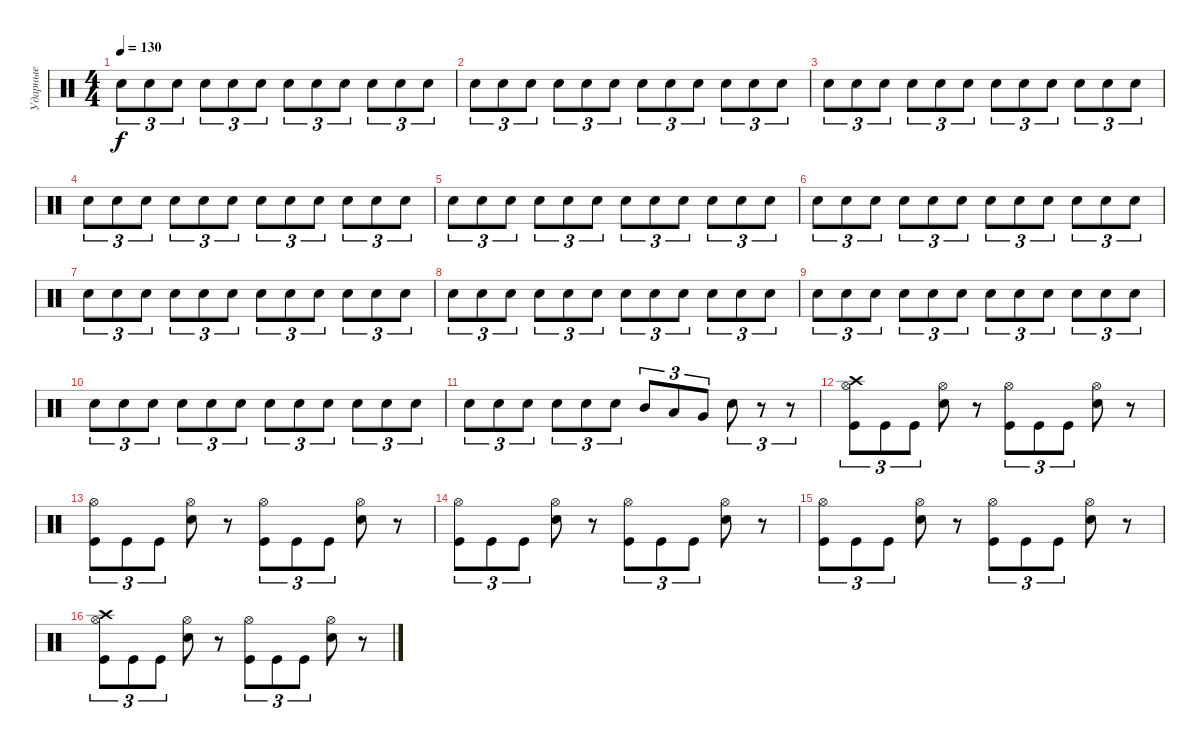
\track ("Ударные" "Ударные") {instrument percussion}
\staff {score}
\articulation defaults
\ts (4 4)
\tempo 130
\clef neutral
\ks c "Electric Snare (hit)".8{tu (3 2) dy f volume 8} "Electric Snare (hit)".8{tu (3 2)} "Electric Snare (hit)".8{tu (3 2)} "Electric Snare (hit)".8{tu (3 2)} "Electric Snare (hit)".8{tu (3 2)} "Electric Snare (hit)".8{tu (3 2)} "Electric Snare (hit)".8{tu (3 2)} "Electric Snare (hit)".8{tu (3 2)} "Electric Snare (hit)".8{tu (3 2)} "Electric Snare (hit)".8{tu (3 2)} "Electric Snare (hit)".8{tu (3 2)} "Electric Snare (hit)".8{tu (3 2)}
|
"Electric Snare (hit)".8{tu (3 2) volume 8} "Electric Snare (hit)".8{tu (3 2)} "Electric Snare (hit)".8{tu (3 2)} "Electric Snare (hit)".8{tu (3 2)} "Electric Snare (hit)".8{tu (3 2)} "Electric Snare (hit)".8{tu (3 2)} "Electric Snare (hit)".8{tu (3 2)} "Electric Snare (hit)".8{tu (3 2)} "Electric Snare (hit)".8{tu (3 2)} "Electric Snare (hit)".8{tu (3 2)} "Electric Snare (hit)".8{tu (3 2)} "Electric Snare (hit)".8{tu (3 2)} |
"Electric Snare (hit)".8{tu (3 2) volume 9} "Electric Snare (hit)".8{tu (3 2)} "Electric Snare (hit)".8{tu (3 2)} "Electric Snare (hit)".8{tu (3 2)} "Electric Snare (hit)".8{tu (3 2)} "Electric Snare (hit)".8{tu (3 2)} "Electric Snare (hit)".8{tu (3 2)} "Electric Snare (hit)".8{tu (3 2)} "Electric Snare (hit)".8{tu (3 2)} "Electric Snare (hit)".8{tu (3 2)} "Electric Snare (hit)".8{tu (3 2)} "Electric Snare (hit)".8{tu (3 2)} |
"Electric Snare (hit)".8{tu (3 2) volume 10} "Electric Snare (hit)".8{tu (3 2)} "Electric Snare (hit)".8{tu (3 2)} "Electric Snare (hit)".8{tu (3 2)} "Electric Snare (hit)".8{tu (3 2)} "Electric Snare (hit)".8{tu (3 2)} "Electric Snare (hit)".8{tu (3 2)} "Electric Snare (hit)".8{tu (3 2)} "Electric Snare (hit)".8{tu (3 2)} "Electric Snare (hit)".8{tu (3 2)} "Electric Snare (hit)".8{tu (3 2)} "Electric Snare (hit)".8{tu (3 2)} |
"Electric Snare (hit)".8{tu (3 2) volume 10} "Electric Snare (hit)".8{tu (3 2)} "Electric Snare (hit)".8{tu (3 2)} "Electric Snare (hit)".8{tu (3 2)} "Electric Snare (hit)".8{tu (3 2)} "Electric Snare (hit)".8{tu (3 2)} "Electric Snare (hit)".8{tu (3 2)} "Electric Snare (hit)".8{tu (3 2)} "Electric Snare (hit)".8{tu (3 2)} "Electric Snare (hit)".8{tu (3 2)} "Electric Snare (hit)".8{tu (3 2)} "Electric Snare (hit)".8{tu (3 2)} |
"Electric Snare (hit)".8{tu (3 2) volume 10} "Electric Snare (hit)".8{tu (3 2)} "Electric Snare (hit)".8{tu (3 2)} "Electric Snare (hit)".8{tu (3 2)} "Electric Snare (hit)".8{tu (3 2)} "Electric Snare (hit)".8{tu (3 2)} "Electric Snare (hit)".8{tu (3 2)} "Electric Snare (hit)".8{tu (3 2)} "Electric Snare (hit)".8{tu (3 2)} "Electric Snare (hit)".8{tu (3 2)} "Electric Snare (hit)".8{tu (3 2)} "Electric Snare (hit)".8{tu (3 2)} |
"Electric Snare (hit)".8{tu (3 2) volume 11} "Electric Snare (hit)".8{tu (3 2)} "Electric Snare (hit)".8{tu (3 2)} "Electric Snare (hit)".8{tu (3 2)} "Electric Snare (hit)".8{tu (3 2)} "Electric Snare (hit)".8{tu (3 2)} "Electric Snare (hit)".8{tu (3 2)} "Electric Snare (hit)".8{tu (3 2)} "Electric Snare (hit)".8{tu (3 2)} "Electric Snare (hit)".8{tu (3 2)} "Electric Snare (hit)".8{tu (3 2)} "Electric Snare (hit)".8{tu (3 2)} |
"Electric Snare (hit)".8{tu (3 2) volume 11} "Electric Snare (hit)".8{tu (3 2)} "Electric Snare (hit)".8{tu (3 2)} "Electric Snare (hit)".8{tu (3 2)} "Electric Snare (hit)".8{tu (3 2)} "Electric Snare (hit)".8{tu (3 2)} "Electric Snare (hit)".8{tu (3 2)} "Electric Snare (hit)".8{tu (3 2)} "Electric Snare (hit)".8{tu (3 2)} "Electric Snare (hit)".8{tu (3 2)} "Electric Snare (hit)".8{tu (3 2)} "Electric Snare (hit)".8{tu (3 2)} |
"Electric Snare (hit)".8{tu (3 2) volume 12} "Electric Snare (hit)".8{tu (3 2)} "Electric Snare (hit)".8{tu (3 2)} "Electric Snare (hit)".8{tu (3 2)} "Electric Snare (hit)".8{tu (3 2)} "Electric Snare (hit)".8{tu (3 2)} "Electric Snare (hit)".8{tu (3 2)} "Electric Snare (hit)".8{tu (3 2)} "Electric Snare (hit)".8{tu (3 2)} "Electric Snare (hit)".8{tu (3 2)} "Electric Snare (hit)".8{tu (3 2)} "Electric Snare (hit)".8{tu (3 2)} |
"Electric Snare (hit)".8{tu (3 2) volume 13} "Electric Snare (hit)".8{tu (3 2)} "Electric Snare (hit)".8{tu (3 2)} "Electric Snare (hit)".8{tu (3 2)} "Electric Snare (hit)".8{tu (3 2)} "Electric Snare (hit)".8{tu (3 2)} "Electric Snare (hit)".8{tu (3 2)} "Electric Snare (hit)".8{tu (3 2)} "Electric Snare (hit)".8{tu (3 2)} "Electric Snare (hit)".8{tu (3 2)} "Electric Snare (hit)".8{tu (3 2)} "Electric Snare (hit)".8{tu (3 2)} |
"Electric Snare (hit)".8{tu (3 2) volume 16} "Electric Snare (hit)".8{tu (3 2)} "Electric Snare (hit)".8{tu (3 2)} "Electric Snare (hit)".8{tu (3 2)} "Electric Snare (hit)".8{tu (3 2)} "Electric Snare (hit)".8{tu (3 2)} "Mid Tom (hit)".8{tu (3 2)} "Low Tom (hit)".8{tu (3 2)} "Very Low Tom (hit)".8{tu (3 2)} "Electric Snare (hit)".8{tu (3 2)} r.8{tu (3 2)} r.8{tu (3 2)} |
("Crash high (hit)" "Hi-Hat (open)" "Kick (hit)").8{tu (3 2)} "Kick (hit)".8{tu (3 2)} "Kick (hit)".8{tu (3 2)} ("Hi-Hat (open)" "Electric Snare (hit)").8 r.8 ("Hi-Hat (open)" "Kick (hit)").8{tu (3 2)} "Kick (hit)".8{tu (3 2)} "Kick (hit)".8{tu (3 2)} ("Hi-Hat (open)" "Electric Snare (hit)").8 r.8 |
("Hi-Hat (open)" "Kick (hit)").8{tu (3 2)} "Kick (hit)".8{tu (3 2)} "Kick (hit)".8{tu (3 2)} ("Hi-Hat (open)" "Electric Snare (hit)").8 r.8 ("Hi-Hat (open)" "Kick (hit)").8{tu (3 2)} "Kick (hit)".8{tu (3 2)} "Kick (hit)".8{tu (3 2)} ("Hi-Hat (open)" "Electric Snare (hit)").8 r.8 |
("Hi-Hat (open)" "Kick (hit)").8{tu (3 2)} "Kick (hit)".8{tu (3 2)} "Kick (hit)".8{tu (3 2)} ("Hi-Hat (open)" "Electric Snare (hit)").8 r.8 ("Hi-Hat (open)" "Kick (hit)").8{tu (3 2)} "Kick (hit)".8{tu (3 2)} "Kick (hit)".8{tu (3 2)} ("Hi-Hat (open)" "Electric Snare (hit)").8 r.8 |
("Hi-Hat (open)" "Kick (hit)").8{tu (3 2)} "Kick (hit)".8{tu (3 2)} "Kick (hit)".8{tu (3 2)} ("Hi-Hat (open)" "Electric Snare (hit)").8 r.8 ("Hi-Hat (open)" "Kick (hit)").8{tu (3 2)} "Kick (hit)".8{tu (3 2)} "Kick (hit)".8{tu (3 2)} ("Hi-Hat (open)" "Electric Snare (hit)").8 r.8 |
("Crash high (hit)" "Hi-Hat (open)" "Kick (hit)").8{tu (3 2)} "Kick (hit)".8{tu (3 2)} "Kick (hit)".8{tu (3 2)} ("Hi-Hat (open)" "Electric Snare (hit)").8 r.8 ("Hi-Hat (open)" "Kick (hit)").8{tu (3 2)} "Kick (hit)".8{tu (3 2)} "Kick (hit)".8{tu (3 2)} ("Hi-Hat (open)" "Electric Snare (hit)").8 r.8
